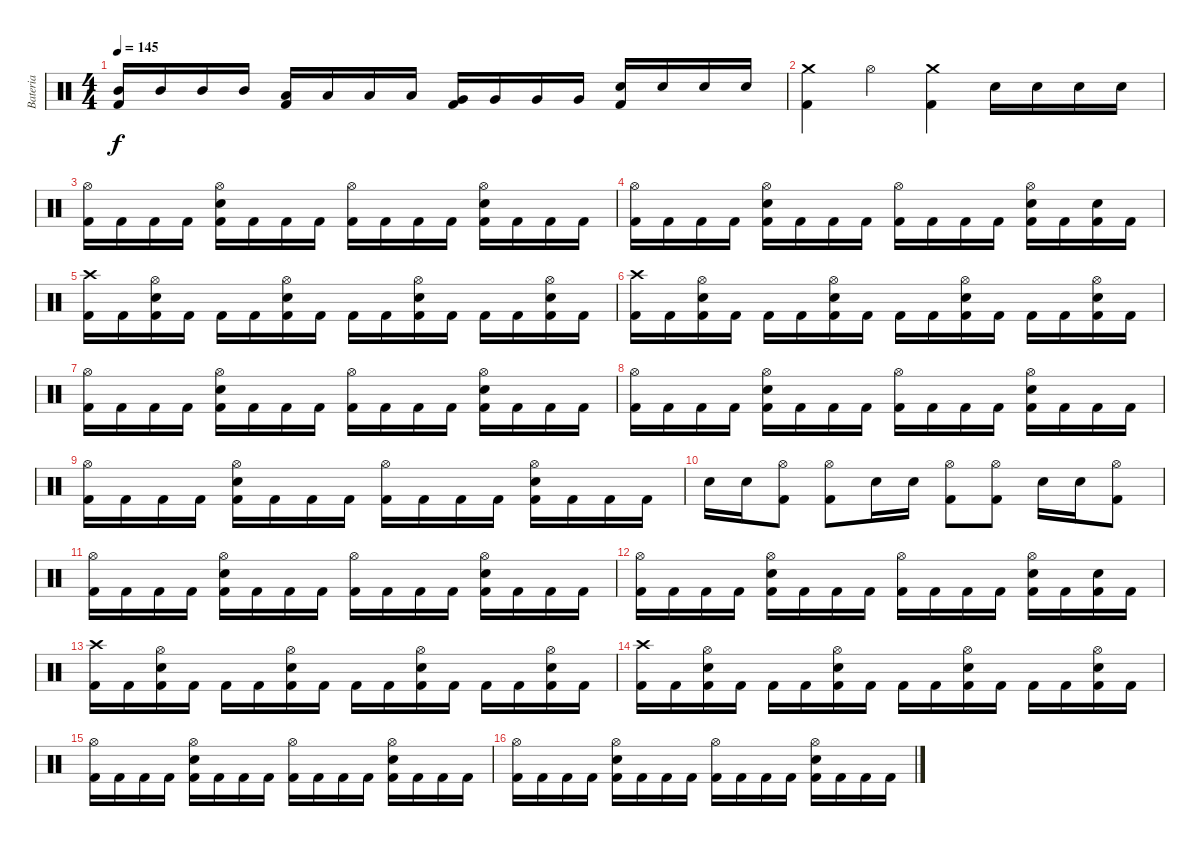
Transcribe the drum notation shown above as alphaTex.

\track ("Bateria" "Bateria") {instrument percussion}
\staff {score}
\articulation defaults
\ts (4 4)
\tempo 145
\clef neutral
\ks c
("Kick (hit) 2" "Mid Tom (hit)").16{dy f} "Mid Tom (hit)".16 "Mid Tom (hit)".16 "Mid Tom (hit)".16 ("Kick (hit) 2" "Low Tom (hit)").16 "Low Tom (hit)".16 "Low Tom (hit)".16 "Low Tom (hit)".16 ("Kick (hit) 2" "Very Low Tom (hit)").16 "Very Low Tom (hit)".16 "Very Low Tom (hit)".16 "Very Low Tom (hit)".16 ("Kick (hit) 2" "Snare (hit) 2").16 "Snare (hit) 2".16 "Snare (hit) 2".16 "Snare (hit) 2".16 |
("Crash medium (hit)" "Kick (hit) 2").4 "Hi-Hat (open)".4 ("Crash medium (hit)" "Kick (hit) 2").4 "Snare (hit) 2".16 "Snare (hit) 2".16 "Snare (hit) 2".16 "Snare (hit) 2".16 |
("Hi-Hat (open)" "Kick (hit) 2").16 "Kick (hit) 2".16 "Kick (hit) 2".16 "Kick (hit) 2".16 ("Snare (hit) 2" "Hi-Hat (open)" "Kick (hit) 2").16 "Kick (hit) 2".16 "Kick (hit) 2".16 "Kick (hit) 2".16 ("Hi-Hat (open)" "Kick (hit) 2").16 "Kick (hit) 2".16 "Kick (hit) 2".16 "Kick (hit) 2".16 ("Snare (hit) 2" "Hi-Hat (open)" "Kick (hit) 2").16 "Kick (hit) 2".16 "Kick (hit) 2".16 "Kick (hit) 2".16 |
("Hi-Hat (open)" "Kick (hit) 2").16 "Kick (hit) 2".16 "Kick (hit) 2".16 "Kick (hit) 2".16 ("Snare (hit) 2" "Hi-Hat (open)" "Kick (hit) 2").16 "Kick (hit) 2".16 "Kick (hit) 2".16 "Kick (hit) 2".16 ("Hi-Hat (open)" "Kick (hit) 2").16 "Kick (hit) 2".16 "Kick (hit) 2".16 "Kick (hit) 2".16 ("Snare (hit) 2" "Hi-Hat (open)" "Kick (hit) 2").16 "Kick (hit) 2".16 ("Snare (hit) 2" "Kick (hit) 2").16 "Kick (hit) 2".16 |
("Crash high (hit)" "Kick (hit) 2").16 "Kick (hit) 2".16 ("Snare (hit) 2" "Hi-Hat (open)" "Kick (hit) 2").16 "Kick (hit) 2".16 "Kick (hit) 2".16 "Kick (hit) 2".16 ("Snare (hit) 2" "Hi-Hat (open)" "Kick (hit) 2").16 "Kick (hit) 2".16 "Kick (hit) 2".16 "Kick (hit) 2".16 ("Snare (hit) 2" "Hi-Hat (open)" "Kick (hit) 2").16 "Kick (hit) 2".16 "Kick (hit) 2".16 "Kick (hit) 2".16 ("Snare (hit) 2" "Hi-Hat (open)" "Kick (hit) 2").16 "Kick (hit) 2".16 |
("Crash high (hit)" "Kick (hit) 2").16 "Kick (hit) 2".16 ("Snare (hit) 2" "Hi-Hat (open)" "Kick (hit) 2").16 "Kick (hit) 2".16 "Kick (hit) 2".16 "Kick (hit) 2".16 ("Snare (hit) 2" "Hi-Hat (open)" "Kick (hit) 2").16 "Kick (hit) 2".16 "Kick (hit) 2".16 "Kick (hit) 2".16 ("Snare (hit) 2" "Hi-Hat (open)" "Kick (hit) 2").16 "Kick (hit) 2".16 "Kick (hit) 2".16 "Kick (hit) 2".16 ("Snare (hit) 2" "Hi-Hat (open)" "Kick (hit) 2").16 "Kick (hit) 2".16 |
("Hi-Hat (open)" "Kick (hit) 2").16 "Kick (hit) 2".16 "Kick (hit) 2".16 "Kick (hit) 2".16 ("Snare (hit) 2" "Hi-Hat (open)" "Kick (hit) 2").16 "Kick (hit) 2".16 "Kick (hit) 2".16 "Kick (hit) 2".16 ("Hi-Hat (open)" "Kick (hit) 2").16 "Kick (hit) 2".16 "Kick (hit) 2".16 "Kick (hit) 2".16 ("Snare (hit) 2" "Hi-Hat (open)" "Kick (hit) 2").16 "Kick (hit) 2".16 "Kick (hit) 2".16 "Kick (hit) 2".16 |
("Hi-Hat (open)" "Kick (hit) 2").16 "Kick (hit) 2".16 "Kick (hit) 2".16 "Kick (hit) 2".16 ("Snare (hit) 2" "Hi-Hat (open)" "Kick (hit) 2").16 "Kick (hit) 2".16 "Kick (hit) 2".16 "Kick (hit) 2".16 ("Hi-Hat (open)" "Kick (hit) 2").16 "Kick (hit) 2".16 "Kick (hit) 2".16 "Kick (hit) 2".16 ("Snare (hit) 2" "Hi-Hat (open)" "Kick (hit) 2").16 "Kick (hit) 2".16 "Kick (hit) 2".16 "Kick (hit) 2".16 |
("Hi-Hat (open)" "Kick (hit) 2").16 "Kick (hit) 2".16 "Kick (hit) 2".16 "Kick (hit) 2".16 ("Snare (hit) 2" "Hi-Hat (open)" "Kick (hit) 2").16 "Kick (hit) 2".16 "Kick (hit) 2".16 "Kick (hit) 2".16 ("Hi-Hat (open)" "Kick (hit) 2").16 "Kick (hit) 2".16 "Kick (hit) 2".16 "Kick (hit) 2".16 ("Snare (hit) 2" "Hi-Hat (open)" "Kick (hit) 2").16 "Kick (hit) 2".16 "Kick (hit) 2".16 "Kick (hit) 2".16 |
"Snare (hit) 2".16 "Snare (hit) 2".16 ("Hi-Hat (open)" "Kick (hit) 2").8 ("Hi-Hat (open)" "Kick (hit) 2").8 "Snare (hit) 2".16 "Snare (hit) 2".16 ("Hi-Hat (open)" "Kick (hit) 2").8 ("Hi-Hat (open)" "Kick (hit) 2").8 "Snare (hit) 2".16 "Snare (hit) 2".16 ("Hi-Hat (open)" "Kick (hit) 2").8 |
("Hi-Hat (open)" "Kick (hit) 2").16 "Kick (hit) 2".16 "Kick (hit) 2".16 "Kick (hit) 2".16 ("Snare (hit) 2" "Hi-Hat (open)" "Kick (hit) 2").16 "Kick (hit) 2".16 "Kick (hit) 2".16 "Kick (hit) 2".16 ("Hi-Hat (open)" "Kick (hit) 2").16 "Kick (hit) 2".16 "Kick (hit) 2".16 "Kick (hit) 2".16 ("Snare (hit) 2" "Hi-Hat (open)" "Kick (hit) 2").16 "Kick (hit) 2".16 "Kick (hit) 2".16 "Kick (hit) 2".16 |
("Hi-Hat (open)" "Kick (hit) 2").16 "Kick (hit) 2".16 "Kick (hit) 2".16 "Kick (hit) 2".16 ("Snare (hit) 2" "Hi-Hat (open)" "Kick (hit) 2").16 "Kick (hit) 2".16 "Kick (hit) 2".16 "Kick (hit) 2".16 ("Hi-Hat (open)" "Kick (hit) 2").16 "Kick (hit) 2".16 "Kick (hit) 2".16 "Kick (hit) 2".16 ("Snare (hit) 2" "Hi-Hat (open)" "Kick (hit) 2").16 "Kick (hit) 2".16 ("Snare (hit) 2" "Kick (hit) 2").16 "Kick (hit) 2".16 |
("Crash high (hit)" "Kick (hit) 2").16 "Kick (hit) 2".16 ("Snare (hit) 2" "Hi-Hat (open)" "Kick (hit) 2").16 "Kick (hit) 2".16 "Kick (hit) 2".16 "Kick (hit) 2".16 ("Snare (hit) 2" "Hi-Hat (open)" "Kick (hit) 2").16 "Kick (hit) 2".16 "Kick (hit) 2".16 "Kick (hit) 2".16 ("Snare (hit) 2" "Hi-Hat (open)" "Kick (hit) 2").16 "Kick (hit) 2".16 "Kick (hit) 2".16 "Kick (hit) 2".16 ("Snare (hit) 2" "Hi-Hat (open)" "Kick (hit) 2").16 "Kick (hit) 2".16 |
("Crash high (hit)" "Kick (hit) 2").16 "Kick (hit) 2".16 ("Snare (hit) 2" "Hi-Hat (open)" "Kick (hit) 2").16 "Kick (hit) 2".16 "Kick (hit) 2".16 "Kick (hit) 2".16 ("Snare (hit) 2" "Hi-Hat (open)" "Kick (hit) 2").16 "Kick (hit) 2".16 "Kick (hit) 2".16 "Kick (hit) 2".16 ("Snare (hit) 2" "Hi-Hat (open)" "Kick (hit) 2").16 "Kick (hit) 2".16 "Kick (hit) 2".16 "Kick (hit) 2".16 ("Snare (hit) 2" "Hi-Hat (open)" "Kick (hit) 2").16 "Kick (hit) 2".16 |
("Hi-Hat (open)" "Kick (hit) 2").16 "Kick (hit) 2".16 "Kick (hit) 2".16 "Kick (hit) 2".16 ("Snare (hit) 2" "Hi-Hat (open)" "Kick (hit) 2").16 "Kick (hit) 2".16 "Kick (hit) 2".16 "Kick (hit) 2".16 ("Hi-Hat (open)" "Kick (hit) 2").16 "Kick (hit) 2".16 "Kick (hit) 2".16 "Kick (hit) 2".16 ("Snare (hit) 2" "Hi-Hat (open)" "Kick (hit) 2").16 "Kick (hit) 2".16 "Kick (hit) 2".16 "Kick (hit) 2".16 |
("Hi-Hat (open)" "Kick (hit) 2").16 "Kick (hit) 2".16 "Kick (hit) 2".16 "Kick (hit) 2".16 ("Snare (hit) 2" "Hi-Hat (open)" "Kick (hit) 2").16 "Kick (hit) 2".16 "Kick (hit) 2".16 "Kick (hit) 2".16 ("Hi-Hat (open)" "Kick (hit) 2").16 "Kick (hit) 2".16 "Kick (hit) 2".16 "Kick (hit) 2".16 ("Snare (hit) 2" "Hi-Hat (open)" "Kick (hit) 2").16 "Kick (hit) 2".16 "Kick (hit) 2".16 "Kick (hit) 2".16
